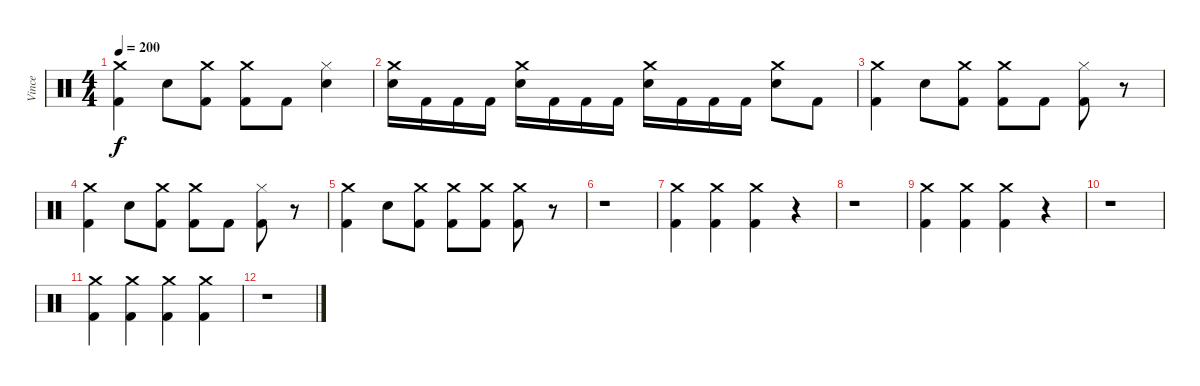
\track ("Vince" "Vince") {instrument percussion}
\staff {score}
\articulation defaults
\ts (4 4)
\tempo 200
\clef neutral
\ks c
("Crash medium (hit)" "Kick (hit) 2").4{dy f} "Snare (hit) 2".8 ("Crash medium (hit)" "Kick (hit) 2").8 ("Crash medium (hit)" "Kick (hit) 2").8 "Kick (hit) 2".8 ("Hi-Hat (closed)" "Snare (hit) 2").4 |
("Crash medium (hit)" "Snare (hit) 2").16 "Kick (hit) 2".16 "Kick (hit) 2".16 "Kick (hit) 2".16 ("Crash medium (hit)" "Snare (hit) 2").16 "Kick (hit) 2".16 "Kick (hit) 2".16 "Kick (hit) 2".16 ("Crash medium (hit)" "Snare (hit) 2").16 "Kick (hit) 2".16 "Kick (hit) 2".16 "Kick (hit) 2".16 ("Crash medium (hit)" "Snare (hit) 2").8 "Kick (hit) 2".8 |
("Crash medium (hit)" "Kick (hit) 2").4 "Snare (hit) 2".8 ("Crash medium (hit)" "Kick (hit) 2").8 ("Crash medium (hit)" "Kick (hit) 2").8 "Kick (hit) 2".8 ("Hi-Hat (closed)" "Kick (hit) 2").8 r.8 |
("Crash medium (hit)" "Kick (hit) 2").4 "Snare (hit) 2".8 ("Crash medium (hit)" "Kick (hit) 2").8 ("Crash medium (hit)" "Kick (hit) 2").8 "Kick (hit) 2".8 ("Hi-Hat (closed)" "Kick (hit) 2").8 r.8 |
("Crash medium (hit)" "Kick (hit) 2").4 "Snare (hit) 2".8 ("Crash medium (hit)" "Kick (hit) 2").8 ("Crash medium (hit)" "Kick (hit) 2").8 ("Crash medium (hit)" "Kick (hit) 2").8 ("Crash medium (hit)" "Kick (hit) 2").8 r.8 |
r.1 |
("Crash medium (hit)" "Kick (hit) 2").4 ("Crash medium (hit)" "Kick (hit) 2").4 ("Crash medium (hit)" "Kick (hit) 2").4 r.4 |
r.1 |
("Crash medium (hit)" "Kick (hit) 2").4 ("Crash medium (hit)" "Kick (hit) 2").4 ("Crash medium (hit)" "Kick (hit) 2").4 r.4 |
r.1 |
("Crash medium (hit)" "Kick (hit) 2").4 ("Crash medium (hit)" "Kick (hit) 2").4 ("Crash medium (hit)" "Kick (hit) 2").4 ("Crash medium (hit)" "Kick (hit) 2").4 |
r.1
